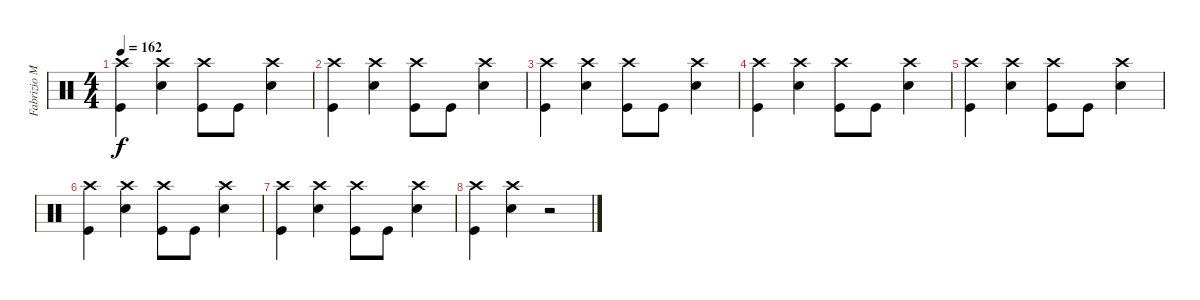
\track ("Fabrizio Moretti" "Fabrizio M") {instrument percussion}
\staff {score}
\articulation defaults
\ts (4 4)
\tempo 162
\clef neutral
\ks c
("Crash high (hit)" "Kick (hit)").4{dy f} ("Crash high (hit)" "Snare (hit) 2").4 ("Crash high (hit)" "Kick (hit)").8 "Kick (hit)".8 ("Crash high (hit)" "Snare (hit) 2").4 |
("Crash high (hit)" "Kick (hit)").4 ("Crash high (hit)" "Snare (hit) 2").4 ("Crash high (hit)" "Kick (hit)").8 "Kick (hit)".8 ("Crash high (hit)" "Snare (hit) 2").4 |
("Crash high (hit)" "Kick (hit)").4 ("Crash high (hit)" "Snare (hit) 2").4 ("Crash high (hit)" "Kick (hit)").8 "Kick (hit)".8 ("Crash high (hit)" "Snare (hit) 2").4 |
("Crash high (hit)" "Kick (hit)").4 ("Crash high (hit)" "Snare (hit) 2").4 ("Crash high (hit)" "Kick (hit)").8 "Kick (hit)".8 ("Crash high (hit)" "Snare (hit) 2").4 |
("Crash high (hit)" "Kick (hit)").4 ("Crash high (hit)" "Snare (hit) 2").4 ("Crash high (hit)" "Kick (hit)").8 "Kick (hit)".8 ("Crash high (hit)" "Snare (hit) 2").4 |
("Crash high (hit)" "Kick (hit)").4 ("Crash high (hit)" "Snare (hit) 2").4 ("Crash high (hit)" "Kick (hit)").8 "Kick (hit)".8 ("Crash high (hit)" "Snare (hit) 2").4 |
("Crash high (hit)" "Kick (hit)").4 ("Crash high (hit)" "Snare (hit) 2").4 ("Crash high (hit)" "Kick (hit)").8 "Kick (hit)".8 ("Crash high (hit)" "Snare (hit) 2").4 |
("Crash high (hit)" "Kick (hit)").4 ("Crash high (hit)" "Snare (hit) 2").4 r.2
